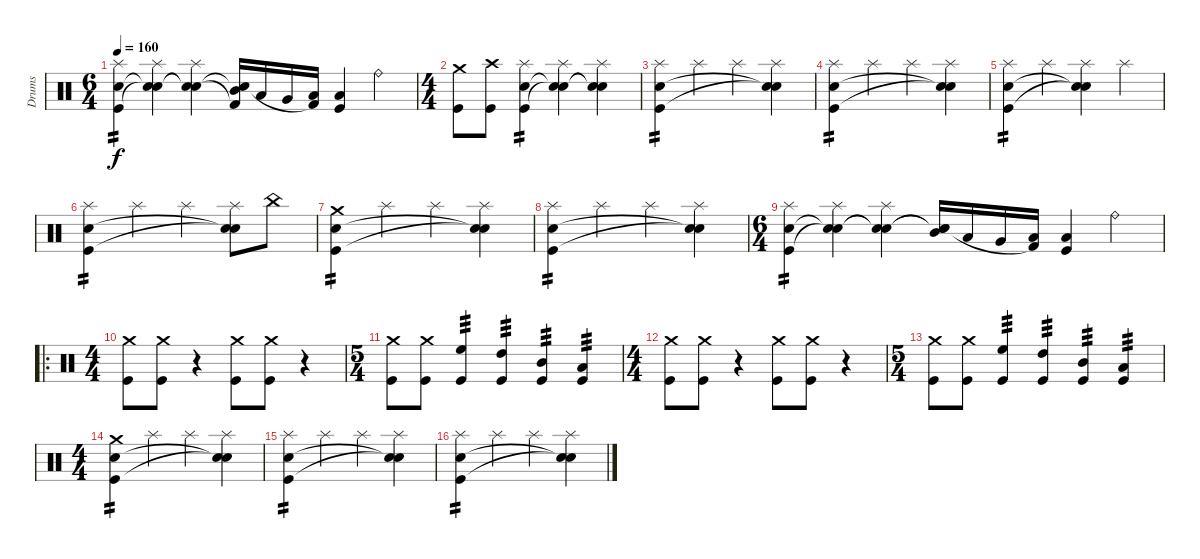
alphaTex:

\track ("Drums" "Drums") {instrument percussion}
\staff {score}
\articulation defaults
\ts (6 4)
\tempo 160
\clef neutral
\ks c
("Splash (hit)" "Electric Snare (hit)" "Kick (hit)").4{tp 2 dy f} ("Splash (hit)" "Snare (hit)"{t} "Snare (hit)"{t}).4 ("Splash (hit)" "Snare (hit)"{t} "Snare (hit)"{t}).4 ("Mid Tom (hit)" "Snare (hit) 2"{t} "Kick (hit) 2"{t}).16 "Low Tom (hit)".16 "Very Low Tom (hit)".16 ("Low Floor Tom (hit)" "Kick (hit) 2"{t}).16 ("Low Floor Tom (hit)" "Kick (hit)").4 "Ride (bell)".4 |
\ts (4 4)
("Crash medium (hit)" "Kick (hit)").8 ("Crash high (hit)" "Kick (hit)").8 ("Splash (hit)" "Electric Snare (hit)" "Kick (hit)").4{tp 2} ("Splash (hit)" "Snare (hit)"{t} "Snare (hit)"{t}).4 ("Splash (hit)" "Snare (hit)"{t} "Snare (hit)"{t}).4 |
("Splash (hit)" "Electric Snare (hit)" "Kick (hit)").4{tp 2} "Splash (hit)".4 "Splash (hit)".4 ("Splash (hit)" "Snare (hit)"{t} "Snare (hit)"{t}).4 |
("Splash (hit)" "Electric Snare (hit)" "Kick (hit)").4{tp 2} "Splash (hit)".4 "Splash (hit)".4 ("Splash (hit)" "Snare (hit)"{t} "Snare (hit)"{t}).4 |
("Splash (hit)" "Electric Snare (hit)" "Kick (hit)").4{tp 2} "Splash (hit)".4 ("Splash (hit)" "Snare (hit)"{t} "Snare (hit)"{t}).4 "Splash (hit)".4 |
("Splash (hit)" "Electric Snare (hit)" "Kick (hit)").4{tp 2} "Splash (hit)".4 "Splash (hit)".4 ("Splash (hit)" "Snare (hit)"{t} "Snare (hit)"{t}).8 "China (hit)".8 |
("Crash medium (hit)" "Electric Snare (hit)" "Kick (hit)").4{tp 2} "Splash (hit)".4 "Splash (hit)".4 ("Splash (hit)" "Snare (hit)"{t} "Snare (hit)"{t}).4 |
("Splash (hit)" "Electric Snare (hit)" "Kick (hit)").4{tp 2} "Splash (hit)".4 "Splash (hit)".4 ("Splash (hit)" "Snare (hit)"{t} "Snare (hit)"{t}).4 |
\ts (6 4)
("Splash (hit)" "Electric Snare (hit)" "Kick (hit)").4{tp 2} ("Splash (hit)" "Snare (hit)"{t} "Snare (hit)"{t}).4 ("Splash (hit)" "Snare (hit)"{t} "Snare (hit)"{t}).4 ("Mid Tom (hit)" "Snare (hit) 2"{t} "Snare (hit)"{t}).16 "Low Tom (hit)".16 "Very Low Tom (hit)".16 ("Low Floor Tom (hit)" "Kick (hit) 2"{t}).16 ("Low Floor Tom (hit)" "Kick (hit)").4 "Ride (bell)".4 |
\ro
\ts (4 4)
("Crash medium (hit)" "Kick (hit)").8 ("Crash medium (hit)" "Kick (hit)").8 r.4 ("Crash medium (hit)" "Kick (hit)").8 ("Crash medium (hit)" "Kick (hit)").8 r.4 |
\ts (5 4)
("Crash medium (hit)" "Kick (hit)").8 ("Crash medium (hit)" "Kick (hit)").8 ("High Floor Tom (hit)" "Kick (hit)").4{tp 3} ("High Tom (hit)" "Kick (hit)").4{tp 3} ("Mid Tom (hit)" "Kick (hit)").4{tp 3} ("Low Tom (hit)" "Kick (hit)").4{tp 3} |
\ts (4 4)
("Crash medium (hit)" "Kick (hit)").8 ("Crash medium (hit)" "Kick (hit)").8 r.4 ("Crash medium (hit)" "Kick (hit)").8 ("Crash medium (hit)" "Kick (hit)").8 r.4 |
\ts (5 4)
("Crash medium (hit)" "Kick (hit)").8 ("Crash medium (hit)" "Kick (hit)").8 ("High Floor Tom (hit)" "Kick (hit)").4{tp 3} ("High Tom (hit)" "Kick (hit)").4{tp 3} ("Mid Tom (hit)" "Kick (hit)").4{tp 3} ("Low Tom (hit)" "Kick (hit)").4{tp 3} |
\ts (4 4)
("Crash medium (hit)" "Electric Snare (hit)" "Kick (hit)").4{tp 2} "Splash (hit)".4 "Splash (hit)".4 ("Splash (hit)" "Snare (hit)"{t} "Snare (hit)"{t}).4 |
("Splash (hit)" "Electric Snare (hit)" "Kick (hit)").4{tp 2} "Splash (hit)".4 "Splash (hit)".4 ("Splash (hit)" "Snare (hit)"{t} "Snare (hit)"{t}).4 |
("Splash (hit)" "Electric Snare (hit)" "Kick (hit)").4{tp 2} "Splash (hit)".4 "Splash (hit)".4 ("Splash (hit)" "Snare (hit)"{t} "Snare (hit)"{t}).4
